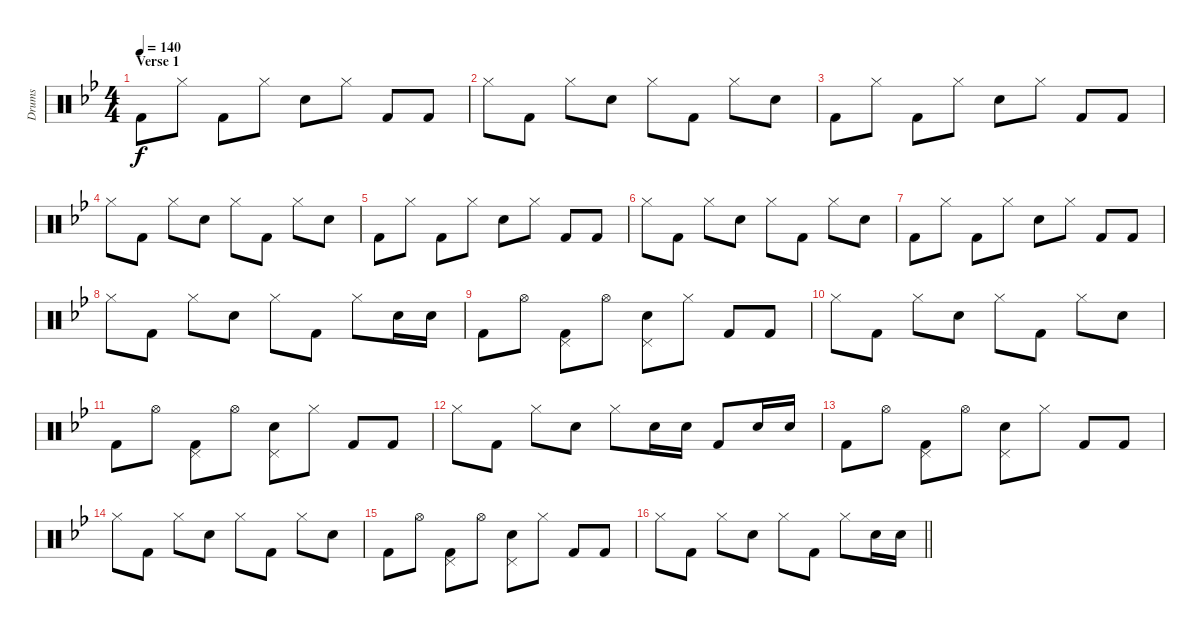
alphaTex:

\track ("Drums" "Drums") {instrument percussion}
\staff {score}
\articulation defaults
\ts (4 4)
\section ("" "Verse 1")
\tempo 140
\clef neutral
\ks gminor "Kick (hit) 2".8{dy f} "Hi-Hat (closed)".8 "Kick (hit) 2".8 "Hi-Hat (closed)".8 "Electric Snare (hit)".8 "Hi-Hat (closed)".8 "Kick (hit) 2".8 "Kick (hit) 2".8
|
"Hi-Hat (closed)".8 "Kick (hit) 2".8 "Hi-Hat (closed)".8 "Electric Snare (hit)".8 "Hi-Hat (closed)".8 "Kick (hit) 2".8 "Hi-Hat (closed)".8 "Electric Snare (hit)".8 |
"Kick (hit) 2".8 "Hi-Hat (closed)".8 "Kick (hit) 2".8 "Hi-Hat (closed)".8 "Electric Snare (hit)".8 "Hi-Hat (closed)".8 "Kick (hit) 2".8 "Kick (hit) 2".8 |
"Hi-Hat (closed)".8 "Kick (hit) 2".8 "Hi-Hat (closed)".8 "Electric Snare (hit)".8 "Hi-Hat (closed)".8 "Kick (hit) 2".8 "Hi-Hat (closed)".8 "Electric Snare (hit)".8 |
"Kick (hit) 2".8 "Hi-Hat (closed)".8 "Kick (hit) 2".8 "Hi-Hat (closed)".8 "Electric Snare (hit)".8 "Hi-Hat (closed)".8 "Kick (hit) 2".8 "Kick (hit) 2".8 |
"Hi-Hat (closed)".8 "Kick (hit) 2".8 "Hi-Hat (closed)".8 "Electric Snare (hit)".8 "Hi-Hat (closed)".8 "Kick (hit) 2".8 "Hi-Hat (closed)".8 "Electric Snare (hit)".8 |
"Kick (hit) 2".8 "Hi-Hat (closed)".8 "Kick (hit) 2".8 "Hi-Hat (closed)".8 "Electric Snare (hit)".8 "Hi-Hat (closed)".8 "Kick (hit) 2".8 "Kick (hit) 2".8 |
"Hi-Hat (closed)".8 "Kick (hit) 2".8 "Hi-Hat (closed)".8 "Electric Snare (hit)".8 "Hi-Hat (closed)".8 "Kick (hit) 2".8 "Hi-Hat (closed)".8 "Electric Snare (hit)".16 "Electric Snare (hit)".16 |
"Kick (hit) 2".8 "Hi-Hat (open)".8 ("Pedal Hi-Hat (hit)" "Kick (hit) 2").8 "Hi-Hat (open)".8 ("Pedal Hi-Hat (hit)" "Electric Snare (hit)").8 "Hi-Hat (closed)".8 "Kick (hit) 2".8 "Kick (hit) 2".8 |
"Hi-Hat (closed)".8 "Kick (hit) 2".8 "Hi-Hat (closed)".8 "Electric Snare (hit)".8 "Hi-Hat (closed)".8 "Kick (hit) 2".8 "Hi-Hat (closed)".8 "Electric Snare (hit)".8 |
"Kick (hit) 2".8 "Hi-Hat (open)".8 ("Pedal Hi-Hat (hit)" "Kick (hit) 2").8 "Hi-Hat (open)".8 ("Pedal Hi-Hat (hit)" "Electric Snare (hit)").8 "Hi-Hat (closed)".8 "Kick (hit) 2".8 "Kick (hit) 2".8 |
"Hi-Hat (closed)".8 "Kick (hit) 2".8 "Hi-Hat (closed)".8 "Electric Snare (hit)".8 "Hi-Hat (closed)".8 "Electric Snare (hit)".16 "Electric Snare (hit)".16 "Kick (hit) 2".8 "Electric Snare (hit)".16 "Electric Snare (hit)".16 |
"Kick (hit) 2".8 "Hi-Hat (open)".8 ("Pedal Hi-Hat (hit)" "Kick (hit) 2").8 "Hi-Hat (open)".8 ("Pedal Hi-Hat (hit)" "Electric Snare (hit)").8 "Hi-Hat (closed)".8 "Kick (hit) 2".8 "Kick (hit) 2".8 |
"Hi-Hat (closed)".8 "Kick (hit) 2".8 "Hi-Hat (closed)".8 "Electric Snare (hit)".8 "Hi-Hat (closed)".8 "Kick (hit) 2".8 "Hi-Hat (closed)".8 "Electric Snare (hit)".8 |
"Kick (hit) 2".8 "Hi-Hat (open)".8 ("Pedal Hi-Hat (hit)" "Kick (hit) 2").8 "Hi-Hat (open)".8 ("Pedal Hi-Hat (hit)" "Electric Snare (hit)").8 "Hi-Hat (closed)".8 "Kick (hit) 2".8 "Kick (hit) 2".8 |
\barLineRight lightlight "Hi-Hat (closed)".8 "Kick (hit) 2".8 "Hi-Hat (closed)".8 "Electric Snare (hit)".8 "Hi-Hat (closed)".8 "Kick (hit) 2".8 "Hi-Hat (closed)".8 "Electric Snare (hit)".16 "Electric Snare (hit)".16
